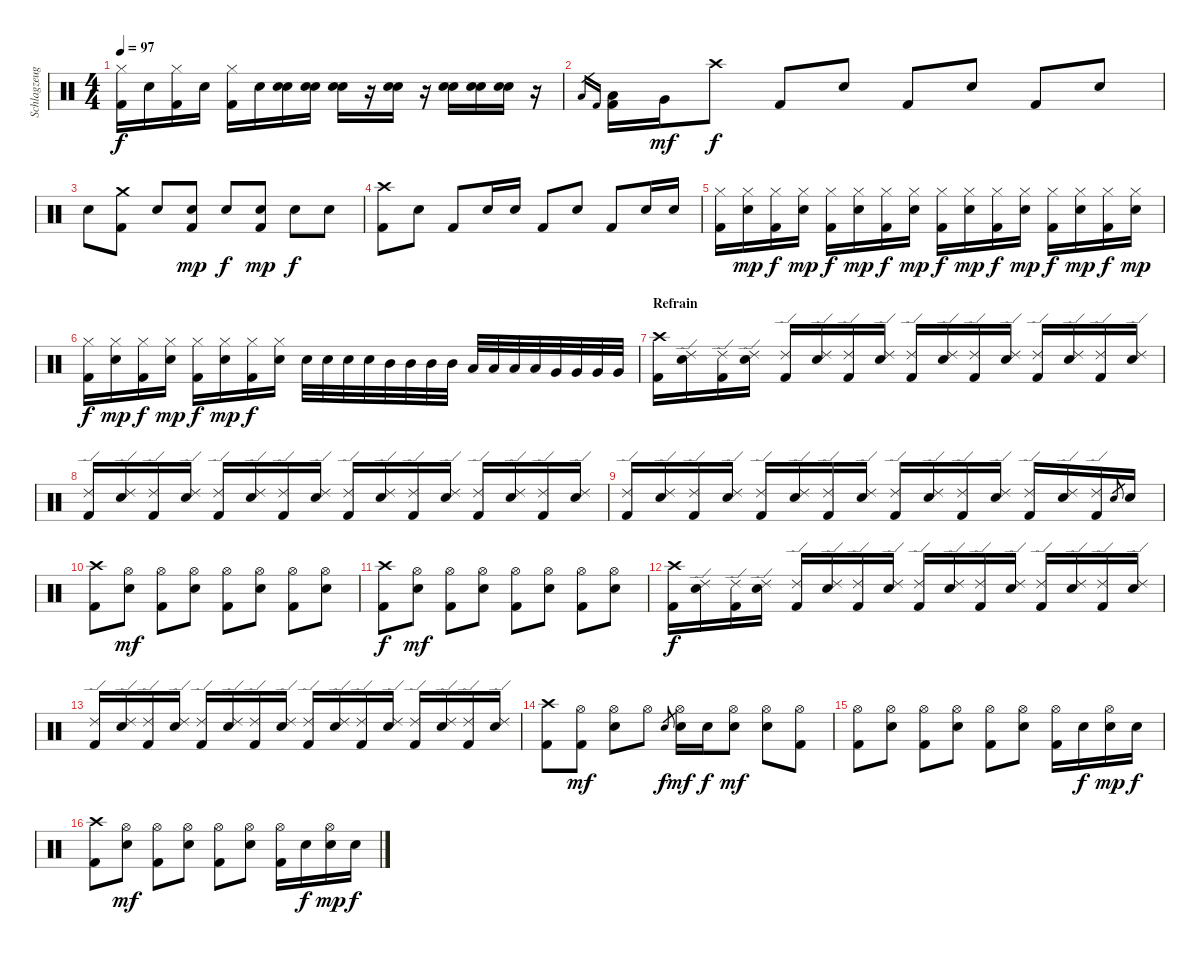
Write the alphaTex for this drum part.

\track ("Schlagzeug" "Schlagzeug") {instrument percussion}
\staff {score}
\articulation defaults
\ts (4 4)
\tempo 97
\clef neutral
\ks c
("Hi-Hat (closed)" "Kick (hit) 2").16{dy f} "Electric Snare (hit)".16 ("Hi-Hat (closed)" "Kick (hit) 2").16 "Electric Snare (hit)".16 ("Hi-Hat (closed)" "Kick (hit) 2").16 "Electric Snare (hit)".16 ("Electric Snare (hit)" "Snare (hit) 2").16 ("Electric Snare (hit)" "Snare (hit) 2").16 ("Electric Snare (hit)" "Snare (hit) 2").16 r.16 ("Electric Snare (hit)" "Snare (hit) 2").16 r.16 ("Electric Snare (hit)" "Snare (hit) 2").16 ("Electric Snare (hit)" "Snare (hit) 2").16 ("Electric Snare (hit)" "Snare (hit) 2").16 r.16 |
"Low Floor Tom (hit)".16{gr} "Kick (hit) 2".16{gr} ("Low Floor Tom (hit)" "Kick (hit) 2").16 "Very Low Tom (hit)".16{dy mf} "Crash high (hit)".8{dy f} "Kick (hit) 2".8 "Electric Snare (hit)".8 "Kick (hit) 2".8 "Electric Snare (hit)".8 "Kick (hit) 2".8 "Electric Snare (hit)".8 |
"Electric Snare (hit)".8 ("Crash medium (hit)" "Kick (hit) 2").8 "Electric Snare (hit)".8 ("Electric Snare (hit)" "Kick (hit) 2").8{dy mp} "Electric Snare (hit)".8{dy f} ("Electric Snare (hit)" "Kick (hit) 2").8{dy mp} "Electric Snare (hit)".8{dy f} "Electric Snare (hit)".8 |
("Crash high (hit)" "Kick (hit) 2").8 "Electric Snare (hit)".8 "Kick (hit) 2".8 "Electric Snare (hit)".16 "Electric Snare (hit)".16 "Kick (hit) 2".8 "Electric Snare (hit)".8 "Kick (hit) 2".8 "Electric Snare (hit)".16 "Electric Snare (hit)".16 |
("Hi-Hat (closed)" "Kick (hit) 2").16 ("Hi-Hat (closed)" "Electric Snare (hit)").16{dy mp} ("Hi-Hat (closed)" "Kick (hit) 2").16{dy f} ("Hi-Hat (closed)" "Electric Snare (hit)").16{dy mp} ("Hi-Hat (closed)" "Kick (hit) 2").16{dy f} ("Hi-Hat (closed)" "Electric Snare (hit)").16{dy mp} ("Hi-Hat (closed)" "Kick (hit) 2").16{dy f} ("Hi-Hat (closed)" "Electric Snare (hit)").16{dy mp} ("Hi-Hat (closed)" "Kick (hit) 2").16{dy f} ("Hi-Hat (closed)" "Electric Snare (hit)").16{dy mp} ("Hi-Hat (closed)" "Kick (hit) 2").16{dy f} ("Hi-Hat (closed)" "Electric Snare (hit)").16{dy mp} ("Hi-Hat (closed)" "Kick (hit) 2").16{dy f} ("Hi-Hat (closed)" "Electric Snare (hit)").16{dy mp} ("Hi-Hat (closed)" "Kick (hit) 2").16{dy f} ("Hi-Hat (closed)" "Electric Snare (hit)").16{dy mp} |
("Hi-Hat (closed)" "Kick (hit) 2").16{dy f} ("Hi-Hat (closed)" "Electric Snare (hit)").16{dy mp} ("Hi-Hat (closed)" "Kick (hit) 2").16{dy f} ("Hi-Hat (closed)" "Electric Snare (hit)").16{dy mp} ("Hi-Hat (closed)" "Kick (hit) 2").16{dy f} ("Hi-Hat (closed)" "Electric Snare (hit)").16{dy mp} ("Hi-Hat (closed)" "Kick (hit) 2").16{dy f} ("Hi-Hat (closed)" "Electric Snare (hit)").16 "Electric Snare (hit)".32 "Electric Snare (hit)".32 "Electric Snare (hit)".32 "Electric Snare (hit)".32 "Mid Tom (hit)".32 "Mid Tom (hit)".32 "Mid Tom (hit)".32 "Mid Tom (hit)".32 "Low Tom (hit)".32 "Low Tom (hit)".32 "Low Tom (hit)".32 "Low Tom (hit)".32 "Very Low Tom (hit)".32 "Very Low Tom (hit)".32 "Very Low Tom (hit)".32 "Very Low Tom (hit)".32 |
\section ("" "Refrain")
("Crash high (hit)" "Kick (hit) 2").16 ("Ride (edge) 2" "Electric Snare (hit)").16 ("Ride (edge) 2" "Kick (hit) 2").16 ("Ride (edge) 2" "Electric Snare (hit)").16 ("Ride (edge) 2" "Kick (hit) 2").16 ("Ride (edge) 2" "Electric Snare (hit)").16 ("Ride (edge) 2" "Kick (hit) 2").16 ("Ride (edge) 2" "Electric Snare (hit)").16 ("Ride (edge) 2" "Kick (hit) 2").16 ("Ride (edge) 2" "Electric Snare (hit)").16 ("Ride (edge) 2" "Kick (hit) 2").16 ("Ride (edge) 2" "Electric Snare (hit)").16 ("Ride (edge) 2" "Kick (hit) 2").16 ("Ride (edge) 2" "Electric Snare (hit)").16 ("Ride (edge) 2" "Kick (hit) 2").16 ("Ride (edge) 2" "Electric Snare (hit)").16 |
("Ride (edge) 2" "Kick (hit) 2").16 ("Ride (edge) 2" "Electric Snare (hit)").16 ("Ride (edge) 2" "Kick (hit) 2").16 ("Ride (edge) 2" "Electric Snare (hit)").16 ("Ride (edge) 2" "Kick (hit) 2").16 ("Ride (edge) 2" "Electric Snare (hit)").16 ("Ride (edge) 2" "Kick (hit) 2").16 ("Ride (edge) 2" "Electric Snare (hit)").16 ("Ride (edge) 2" "Kick (hit) 2").16 ("Ride (edge) 2" "Electric Snare (hit)").16 ("Ride (edge) 2" "Kick (hit) 2").16 ("Ride (edge) 2" "Electric Snare (hit)").16 ("Ride (edge) 2" "Kick (hit) 2").16 ("Ride (edge) 2" "Electric Snare (hit)").16 ("Ride (edge) 2" "Kick (hit) 2").16 ("Ride (edge) 2" "Electric Snare (hit)").16 |
("Ride (edge) 2" "Kick (hit) 2").16 ("Ride (edge) 2" "Electric Snare (hit)").16 ("Ride (edge) 2" "Kick (hit) 2").16 ("Ride (edge) 2" "Electric Snare (hit)").16 ("Ride (edge) 2" "Kick (hit) 2").16 ("Ride (edge) 2" "Electric Snare (hit)").16 ("Ride (edge) 2" "Kick (hit) 2").16 ("Ride (edge) 2" "Electric Snare (hit)").16 ("Ride (edge) 2" "Kick (hit) 2").16 ("Ride (edge) 2" "Electric Snare (hit)").16 ("Ride (edge) 2" "Kick (hit) 2").16 ("Ride (edge) 2" "Electric Snare (hit)").16 ("Ride (edge) 2" "Kick (hit) 2").16 ("Ride (edge) 2" "Electric Snare (hit)").16 ("Ride (edge) 2" "Kick (hit) 2").16 "Electric Snare (hit)".8{gr} "Electric Snare (hit)".16 |
("Crash high (hit)" "Kick (hit) 2").8 ("Hi-Hat (open)" "Electric Snare (hit)").8{dy mf} ("Hi-Hat (open)" "Kick (hit) 2").8 ("Hi-Hat (open)" "Electric Snare (hit)").8 ("Hi-Hat (open)" "Kick (hit) 2").8 ("Hi-Hat (open)" "Electric Snare (hit)").8 ("Hi-Hat (open)" "Kick (hit) 2").8 ("Hi-Hat (open)" "Electric Snare (hit)").8 |
("Crash high (hit)" "Kick (hit) 2").8{dy f} ("Hi-Hat (open)" "Electric Snare (hit)").8{dy mf} ("Hi-Hat (open)" "Kick (hit) 2").8 ("Hi-Hat (open)" "Electric Snare (hit)").8 ("Hi-Hat (open)" "Kick (hit) 2").8 ("Hi-Hat (open)" "Electric Snare (hit)").8 ("Hi-Hat (open)" "Kick (hit) 2").8 ("Hi-Hat (open)" "Electric Snare (hit)").8 |
("Crash high (hit)" "Kick (hit) 2").16{dy f} ("Ride (edge) 2" "Electric Snare (hit)").16 ("Ride (edge) 2" "Kick (hit) 2").16 ("Ride (edge) 2" "Electric Snare (hit)").16 ("Ride (edge) 2" "Kick (hit) 2").16 ("Ride (edge) 2" "Electric Snare (hit)").16 ("Ride (edge) 2" "Kick (hit) 2").16 ("Ride (edge) 2" "Electric Snare (hit)").16 ("Ride (edge) 2" "Kick (hit) 2").16 ("Ride (edge) 2" "Electric Snare (hit)").16 ("Ride (edge) 2" "Kick (hit) 2").16 ("Ride (edge) 2" "Electric Snare (hit)").16 ("Ride (edge) 2" "Kick (hit) 2").16 ("Ride (edge) 2" "Electric Snare (hit)").16 ("Ride (edge) 2" "Kick (hit) 2").16 ("Ride (edge) 2" "Electric Snare (hit)").16 |
("Ride (edge) 2" "Kick (hit) 2").16 ("Ride (edge) 2" "Electric Snare (hit)").16 ("Ride (edge) 2" "Kick (hit) 2").16 ("Ride (edge) 2" "Electric Snare (hit)").16 ("Ride (edge) 2" "Kick (hit) 2").16 ("Ride (edge) 2" "Electric Snare (hit)").16 ("Ride (edge) 2" "Kick (hit) 2").16 ("Ride (edge) 2" "Electric Snare (hit)").16 ("Ride (edge) 2" "Kick (hit) 2").16 ("Ride (edge) 2" "Electric Snare (hit)").16 ("Ride (edge) 2" "Kick (hit) 2").16 ("Ride (edge) 2" "Electric Snare (hit)").16 ("Ride (edge) 2" "Kick (hit) 2").16 ("Ride (edge) 2" "Electric Snare (hit)").16 ("Ride (edge) 2" "Kick (hit) 2").16 ("Ride (edge) 2" "Electric Snare (hit)").16 |
("Crash high (hit)" "Kick (hit) 2").8 ("Hi-Hat (open)" "Kick (hit) 2").8{dy mf} ("Hi-Hat (open)" "Electric Snare (hit)").8 "Hi-Hat (open)".8 "Electric Snare (hit)".8{gr dy f} ("Hi-Hat (open)" "Electric Snare (hit)").16{dy mf} "Electric Snare (hit)".16{dy f} ("Hi-Hat (open)" "Electric Snare (hit)").8{dy mf} ("Hi-Hat (open)" "Electric Snare (hit)").8 ("Hi-Hat (open)" "Kick (hit) 2").8 |
("Hi-Hat (open)" "Kick (hit) 2").8 ("Hi-Hat (open)" "Electric Snare (hit)").8 ("Hi-Hat (open)" "Kick (hit) 2").8 ("Hi-Hat (open)" "Electric Snare (hit)").8 ("Hi-Hat (open)" "Kick (hit) 2").8 ("Hi-Hat (open)" "Electric Snare (hit)").8 ("Hi-Hat (open)" "Kick (hit) 2").16 "Electric Snare (hit)".16{dy f} ("Hi-Hat (open)" "Electric Snare (hit)").16{dy mp} "Electric Snare (hit)".16{dy f} |
("Crash high (hit)" "Kick (hit) 2").8 ("Hi-Hat (open)" "Electric Snare (hit)").8{dy mf} ("Hi-Hat (open)" "Kick (hit) 2").8 ("Hi-Hat (open)" "Electric Snare (hit)").8 ("Hi-Hat (open)" "Kick (hit) 2").8 ("Hi-Hat (open)" "Electric Snare (hit)").8 ("Hi-Hat (open)" "Kick (hit) 2").16 "Electric Snare (hit)".16{dy f} ("Hi-Hat (open)" "Electric Snare (hit)").16{dy mp} "Electric Snare (hit)".16{dy f}
